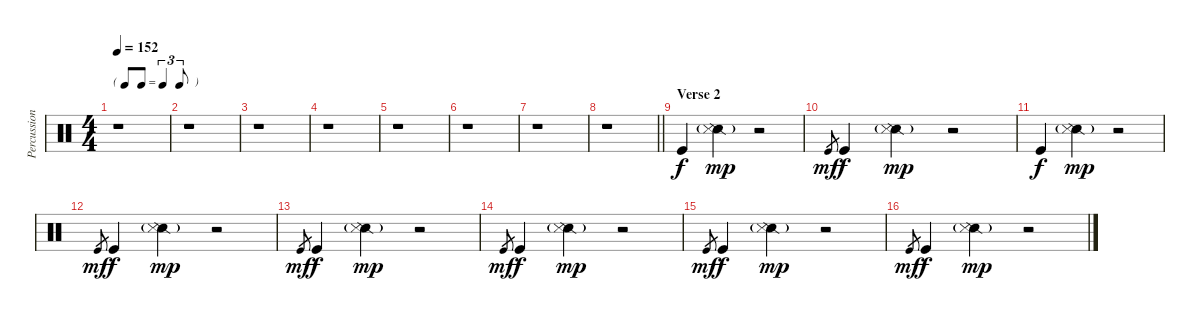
\track ("Percussion" "Percussion") {instrument percussion}
\staff {score}
\articulation defaults
\ts (4 4)
\tf triplet8th
\tempo 152
\clef neutral
\ks c
r.1{dy f} |
r.1 |
r.1 |
r.1 |
r.1 |
r.1 |
r.1 |
\barLineRight lightlight
r.1 |
\section ("" "Verse 2")
"Kick (hit)".4 ("Snare (side stick) 2"{g} "Snare (side stick) 3").4{dy mp} r.2 |
"Kick (hit)".8{gr dy mf} "Kick (hit)".4{dy f} ("Snare (side stick) 2"{g} "Snare (side stick) 3").4{dy mp} r.2 |
"Kick (hit)".4{dy f} ("Snare (side stick) 2"{g} "Snare (side stick) 3").4{dy mp} r.2 |
"Kick (hit)".8{gr dy mf} "Kick (hit)".4{dy f} ("Snare (side stick) 2"{g} "Snare (side stick) 3").4{dy mp} r.2 |
"Kick (hit)".8{gr dy mf} "Kick (hit)".4{dy f} ("Snare (side stick) 2"{g} "Snare (side stick) 3").4{dy mp} r.2 |
"Kick (hit)".8{gr dy mf} "Kick (hit)".4{dy f} ("Snare (side stick) 2"{g} "Snare (side stick) 3").4{dy mp} r.2 |
"Kick (hit)".8{gr dy mf} "Kick (hit)".4{dy f} ("Snare (side stick) 2"{g} "Snare (side stick) 3").4{dy mp} r.2 |
"Kick (hit)".8{gr dy mf} "Kick (hit)".4{dy f} ("Snare (side stick) 2"{g} "Snare (side stick) 3").4{dy mp} r.2
